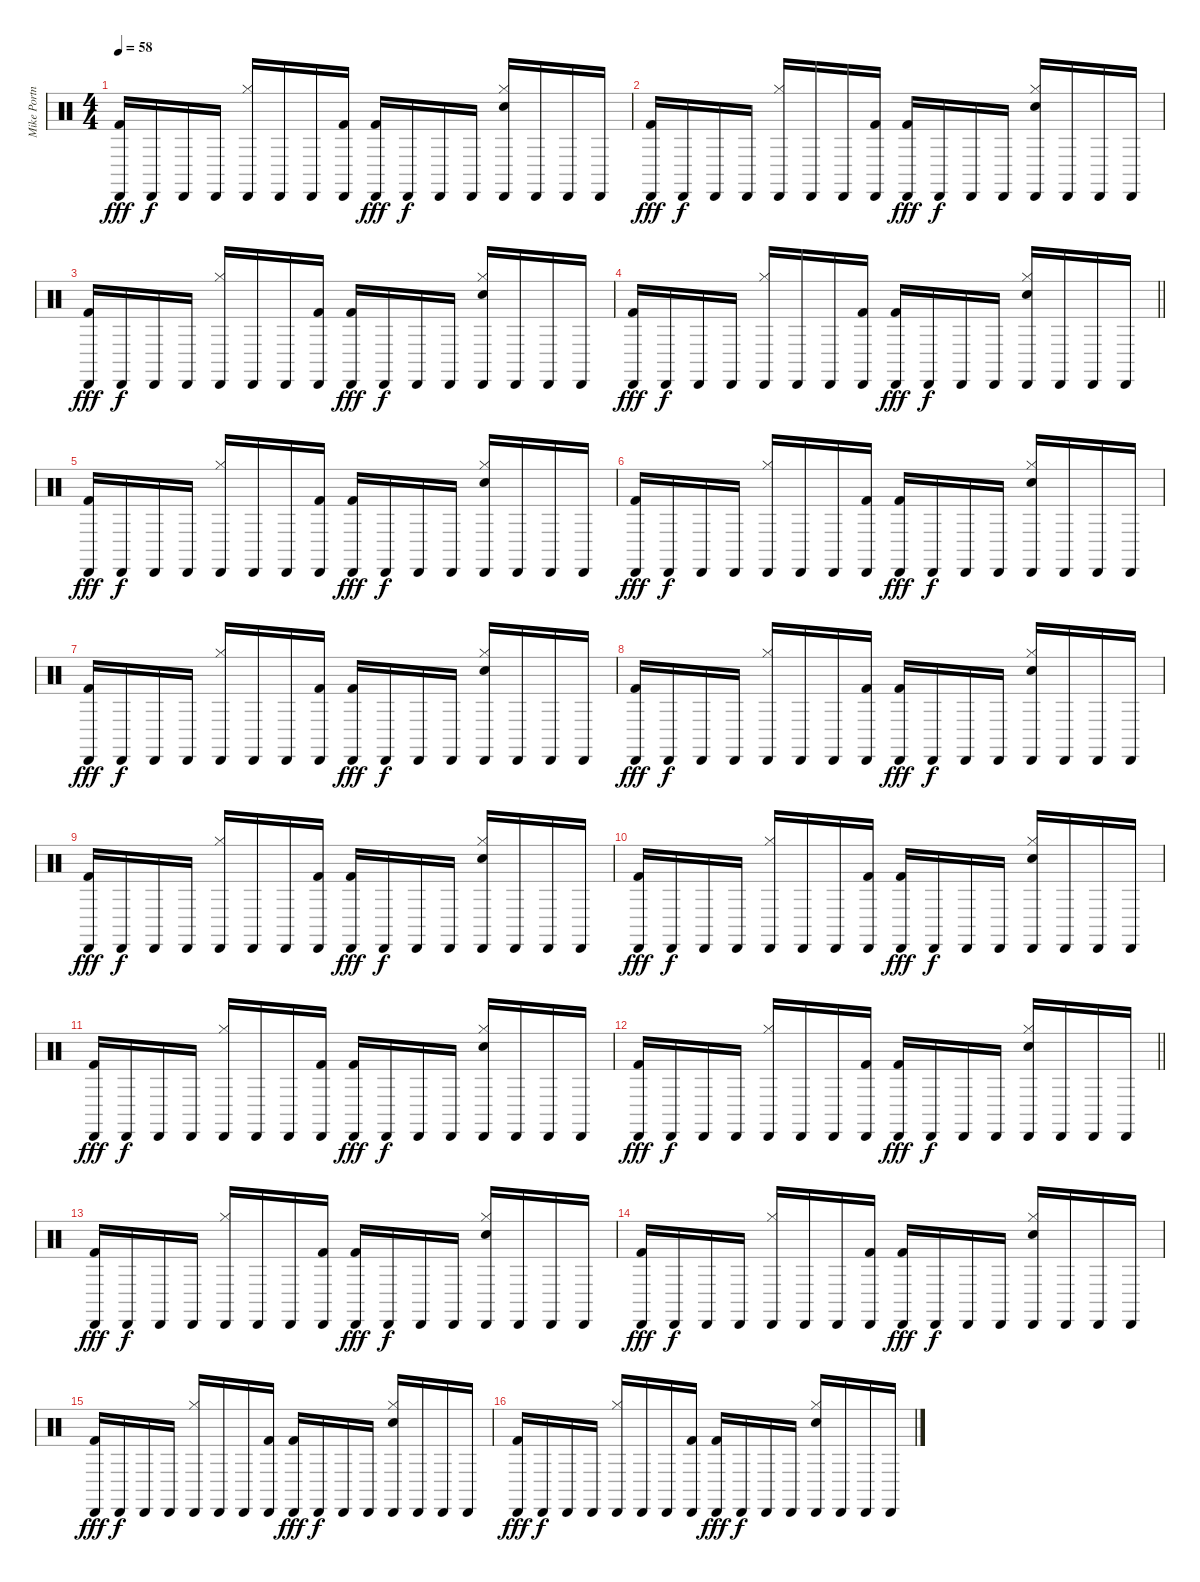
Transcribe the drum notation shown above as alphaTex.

\track ("Mike Portnoy" "Mike Portn") {instrument percussion}
\staff {score}
\articulation defaults
\ts (4 4)
\tempo 58
\clef neutral
\ks c
("Cabasa (hit)" "Kick (hit) 2").16{dy fff} "Cabasa (hit)".16{dy f} "Cabasa (hit)".16 "Cabasa (hit)".16 ("Hi-Hat (closed)" "Cabasa (hit)").16 "Cabasa (hit)".16 "Cabasa (hit)".16 ("Cabasa (hit)" "Kick (hit) 2").16 ("Cabasa (hit)" "Kick (hit) 2").16{dy fff} "Cabasa (hit)".16{dy f} "Cabasa (hit)".16 "Cabasa (hit)".16 ("Hi-Hat (closed)" "Cabasa (hit)" "Snare (hit) 2").16 "Cabasa (hit)".16 "Cabasa (hit)".16 "Cabasa (hit)".16 |
("Cabasa (hit)" "Kick (hit) 2").16{dy fff} "Cabasa (hit)".16{dy f} "Cabasa (hit)".16 "Cabasa (hit)".16 ("Hi-Hat (closed)" "Cabasa (hit)").16 "Cabasa (hit)".16 "Cabasa (hit)".16 ("Cabasa (hit)" "Kick (hit) 2").16 ("Cabasa (hit)" "Kick (hit) 2").16{dy fff} "Cabasa (hit)".16{dy f} "Cabasa (hit)".16 "Cabasa (hit)".16 ("Hi-Hat (closed)" "Cabasa (hit)" "Snare (hit) 2").16 "Cabasa (hit)".16 "Cabasa (hit)".16 "Cabasa (hit)".16 |
("Cabasa (hit)" "Kick (hit) 2").16{dy fff} "Cabasa (hit)".16{dy f} "Cabasa (hit)".16 "Cabasa (hit)".16 ("Hi-Hat (closed)" "Cabasa (hit)").16 "Cabasa (hit)".16 "Cabasa (hit)".16 ("Cabasa (hit)" "Kick (hit) 2").16 ("Cabasa (hit)" "Kick (hit) 2").16{dy fff} "Cabasa (hit)".16{dy f} "Cabasa (hit)".16 "Cabasa (hit)".16 ("Hi-Hat (closed)" "Cabasa (hit)" "Snare (hit) 2").16 "Cabasa (hit)".16 "Cabasa (hit)".16 "Cabasa (hit)".16 |
\barLineRight lightlight
("Cabasa (hit)" "Kick (hit) 2").16{dy fff} "Cabasa (hit)".16{dy f} "Cabasa (hit)".16 "Cabasa (hit)".16 ("Hi-Hat (closed)" "Cabasa (hit)").16 "Cabasa (hit)".16 "Cabasa (hit)".16 ("Cabasa (hit)" "Kick (hit) 2").16 ("Cabasa (hit)" "Kick (hit) 2").16{dy fff} "Cabasa (hit)".16{dy f} "Cabasa (hit)".16 "Cabasa (hit)".16 ("Hi-Hat (closed)" "Cabasa (hit)" "Snare (hit) 2").16 "Cabasa (hit)".16 "Cabasa (hit)".16 "Cabasa (hit)".16 |
("Cabasa (hit)" "Kick (hit) 2").16{dy fff} "Cabasa (hit)".16{dy f} "Cabasa (hit)".16 "Cabasa (hit)".16 ("Hi-Hat (closed)" "Cabasa (hit)").16 "Cabasa (hit)".16 "Cabasa (hit)".16 ("Cabasa (hit)" "Kick (hit) 2").16 ("Cabasa (hit)" "Kick (hit) 2").16{dy fff} "Cabasa (hit)".16{dy f} "Cabasa (hit)".16 "Cabasa (hit)".16 ("Hi-Hat (closed)" "Cabasa (hit)" "Snare (hit) 2").16 "Cabasa (hit)".16 "Cabasa (hit)".16 "Cabasa (hit)".16 |
("Cabasa (hit)" "Kick (hit) 2").16{dy fff} "Cabasa (hit)".16{dy f} "Cabasa (hit)".16 "Cabasa (hit)".16 ("Hi-Hat (closed)" "Cabasa (hit)").16 "Cabasa (hit)".16 "Cabasa (hit)".16 ("Cabasa (hit)" "Kick (hit) 2").16 ("Cabasa (hit)" "Kick (hit) 2").16{dy fff} "Cabasa (hit)".16{dy f} "Cabasa (hit)".16 "Cabasa (hit)".16 ("Hi-Hat (closed)" "Cabasa (hit)" "Snare (hit) 2").16 "Cabasa (hit)".16 "Cabasa (hit)".16 "Cabasa (hit)".16 |
("Cabasa (hit)" "Kick (hit) 2").16{dy fff} "Cabasa (hit)".16{dy f} "Cabasa (hit)".16 "Cabasa (hit)".16 ("Hi-Hat (closed)" "Cabasa (hit)").16 "Cabasa (hit)".16 "Cabasa (hit)".16 ("Cabasa (hit)" "Kick (hit) 2").16 ("Cabasa (hit)" "Kick (hit) 2").16{dy fff} "Cabasa (hit)".16{dy f} "Cabasa (hit)".16 "Cabasa (hit)".16 ("Hi-Hat (closed)" "Cabasa (hit)" "Snare (hit) 2").16 "Cabasa (hit)".16 "Cabasa (hit)".16 "Cabasa (hit)".16 |
("Cabasa (hit)" "Kick (hit) 2").16{dy fff} "Cabasa (hit)".16{dy f} "Cabasa (hit)".16 "Cabasa (hit)".16 ("Hi-Hat (closed)" "Cabasa (hit)").16 "Cabasa (hit)".16 "Cabasa (hit)".16 ("Cabasa (hit)" "Kick (hit) 2").16 ("Cabasa (hit)" "Kick (hit) 2").16{dy fff} "Cabasa (hit)".16{dy f} "Cabasa (hit)".16 "Cabasa (hit)".16 ("Hi-Hat (closed)" "Cabasa (hit)" "Snare (hit) 2").16 "Cabasa (hit)".16 "Cabasa (hit)".16 "Cabasa (hit)".16 |
("Cabasa (hit)" "Kick (hit) 2").16{dy fff} "Cabasa (hit)".16{dy f} "Cabasa (hit)".16 "Cabasa (hit)".16 ("Hi-Hat (closed)" "Cabasa (hit)").16 "Cabasa (hit)".16 "Cabasa (hit)".16 ("Cabasa (hit)" "Kick (hit) 2").16 ("Cabasa (hit)" "Kick (hit) 2").16{dy fff} "Cabasa (hit)".16{dy f} "Cabasa (hit)".16 "Cabasa (hit)".16 ("Hi-Hat (closed)" "Cabasa (hit)" "Snare (hit) 2").16 "Cabasa (hit)".16 "Cabasa (hit)".16 "Cabasa (hit)".16 |
("Cabasa (hit)" "Kick (hit) 2").16{dy fff} "Cabasa (hit)".16{dy f} "Cabasa (hit)".16 "Cabasa (hit)".16 ("Hi-Hat (closed)" "Cabasa (hit)").16 "Cabasa (hit)".16 "Cabasa (hit)".16 ("Cabasa (hit)" "Kick (hit) 2").16 ("Cabasa (hit)" "Kick (hit) 2").16{dy fff} "Cabasa (hit)".16{dy f} "Cabasa (hit)".16 "Cabasa (hit)".16 ("Hi-Hat (closed)" "Cabasa (hit)" "Snare (hit) 2").16 "Cabasa (hit)".16 "Cabasa (hit)".16 "Cabasa (hit)".16 |
("Cabasa (hit)" "Kick (hit) 2").16{dy fff} "Cabasa (hit)".16{dy f} "Cabasa (hit)".16 "Cabasa (hit)".16 ("Hi-Hat (closed)" "Cabasa (hit)").16 "Cabasa (hit)".16 "Cabasa (hit)".16 ("Cabasa (hit)" "Kick (hit) 2").16 ("Cabasa (hit)" "Kick (hit) 2").16{dy fff} "Cabasa (hit)".16{dy f} "Cabasa (hit)".16 "Cabasa (hit)".16 ("Hi-Hat (closed)" "Cabasa (hit)" "Snare (hit) 2").16 "Cabasa (hit)".16 "Cabasa (hit)".16 "Cabasa (hit)".16 |
\barLineRight lightlight
("Cabasa (hit)" "Kick (hit) 2").16{dy fff} "Cabasa (hit)".16{dy f} "Cabasa (hit)".16 "Cabasa (hit)".16 ("Hi-Hat (closed)" "Cabasa (hit)").16 "Cabasa (hit)".16 "Cabasa (hit)".16 ("Cabasa (hit)" "Kick (hit) 2").16 ("Cabasa (hit)" "Kick (hit) 2").16{dy fff} "Cabasa (hit)".16{dy f} "Cabasa (hit)".16 "Cabasa (hit)".16 ("Hi-Hat (closed)" "Cabasa (hit)" "Snare (hit) 2").16 "Cabasa (hit)".16 "Cabasa (hit)".16 "Cabasa (hit)".16 |
("Cabasa (hit)" "Kick (hit) 2").16{dy fff} "Cabasa (hit)".16{dy f} "Cabasa (hit)".16 "Cabasa (hit)".16 ("Hi-Hat (closed)" "Cabasa (hit)").16 "Cabasa (hit)".16 "Cabasa (hit)".16 ("Cabasa (hit)" "Kick (hit) 2").16 ("Cabasa (hit)" "Kick (hit) 2").16{dy fff} "Cabasa (hit)".16{dy f} "Cabasa (hit)".16 "Cabasa (hit)".16 ("Hi-Hat (closed)" "Cabasa (hit)" "Snare (hit) 2").16 "Cabasa (hit)".16 "Cabasa (hit)".16 "Cabasa (hit)".16 |
("Cabasa (hit)" "Kick (hit) 2").16{dy fff} "Cabasa (hit)".16{dy f} "Cabasa (hit)".16 "Cabasa (hit)".16 ("Hi-Hat (closed)" "Cabasa (hit)").16 "Cabasa (hit)".16 "Cabasa (hit)".16 ("Cabasa (hit)" "Kick (hit) 2").16 ("Cabasa (hit)" "Kick (hit) 2").16{dy fff} "Cabasa (hit)".16{dy f} "Cabasa (hit)".16 "Cabasa (hit)".16 ("Hi-Hat (closed)" "Cabasa (hit)" "Snare (hit) 2").16 "Cabasa (hit)".16 "Cabasa (hit)".16 "Cabasa (hit)".16 |
("Cabasa (hit)" "Kick (hit) 2").16{dy fff} "Cabasa (hit)".16{dy f} "Cabasa (hit)".16 "Cabasa (hit)".16 ("Hi-Hat (closed)" "Cabasa (hit)").16 "Cabasa (hit)".16 "Cabasa (hit)".16 ("Cabasa (hit)" "Kick (hit) 2").16 ("Cabasa (hit)" "Kick (hit) 2").16{dy fff} "Cabasa (hit)".16{dy f} "Cabasa (hit)".16 "Cabasa (hit)".16 ("Hi-Hat (closed)" "Cabasa (hit)" "Snare (hit) 2").16 "Cabasa (hit)".16 "Cabasa (hit)".16 "Cabasa (hit)".16 |
("Cabasa (hit)" "Kick (hit) 2").16{dy fff} "Cabasa (hit)".16{dy f} "Cabasa (hit)".16 "Cabasa (hit)".16 ("Hi-Hat (closed)" "Cabasa (hit)").16 "Cabasa (hit)".16 "Cabasa (hit)".16 ("Cabasa (hit)" "Kick (hit) 2").16 ("Cabasa (hit)" "Kick (hit) 2").16{dy fff} "Cabasa (hit)".16{dy f} "Cabasa (hit)".16 "Cabasa (hit)".16 ("Hi-Hat (closed)" "Cabasa (hit)" "Snare (hit) 2").16 "Cabasa (hit)".16 "Cabasa (hit)".16 "Cabasa (hit)".16
